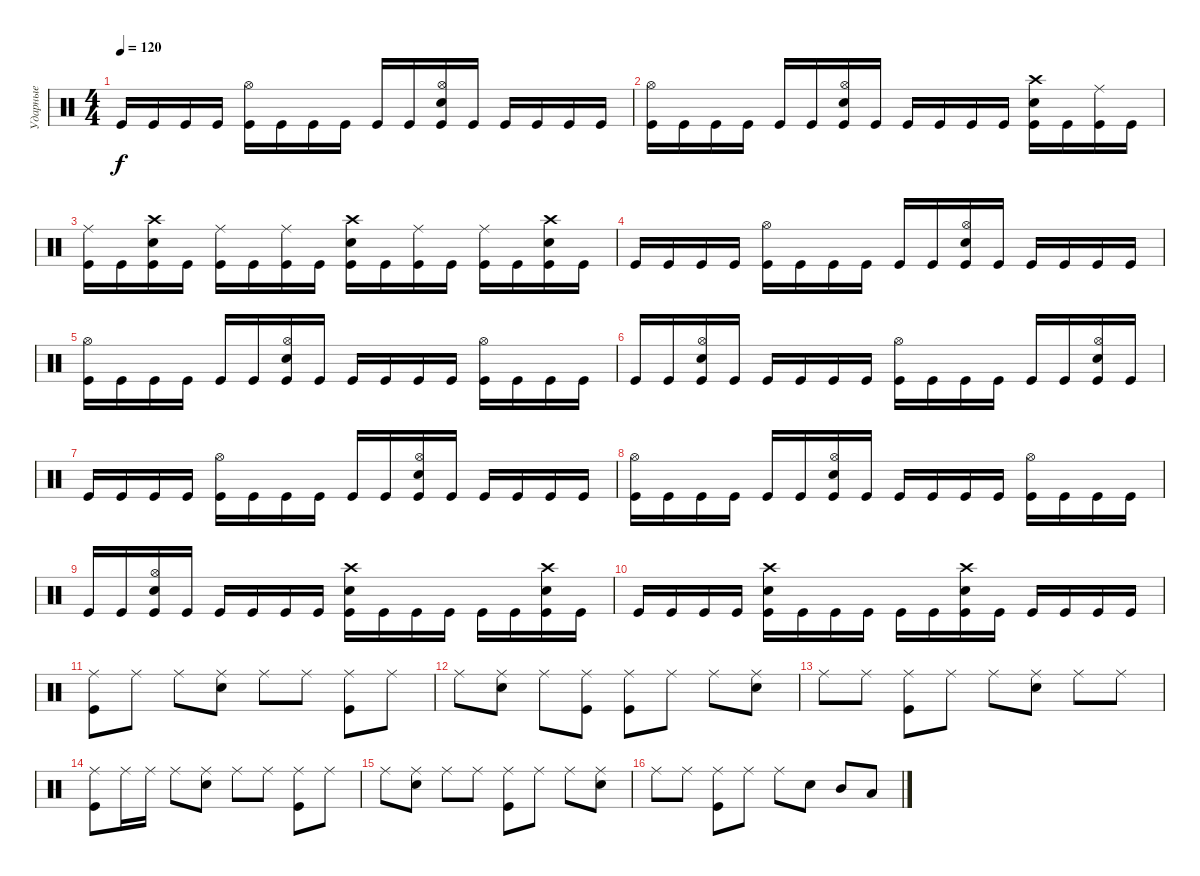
\track ("Ударные" "Ударные") {instrument percussion}
\staff {score}
\articulation defaults
\ts (4 4)
\tempo 120
\clef neutral
\ks c "Kick (hit)".16{dy f} "Kick (hit)".16 "Kick (hit)".16 "Kick (hit)".16
("Kick (hit)" "Hi-Hat (open)").16 "Kick (hit)".16 "Kick (hit)".16 "Kick (hit)".16 "Kick (hit)".16 "Kick (hit)".16 ("Electric Snare (hit)" "Kick (hit)" "Hi-Hat (open)").16 "Kick (hit)".16 "Kick (hit)".16 "Kick (hit)".16 "Kick (hit)".16 "Kick (hit)".16 |
("Kick (hit)" "Hi-Hat (open)").16 "Kick (hit)".16 "Kick (hit)".16 "Kick (hit)".16 "Kick (hit)".16 "Kick (hit)".16 ("Electric Snare (hit)" "Kick (hit)" "Hi-Hat (open)").16 "Kick (hit)".16 "Kick (hit)".16 "Kick (hit)".16 "Kick (hit)".16 "Kick (hit)".16 ("Electric Snare (hit)" "Kick (hit)" "Crash high (hit)").16 "Kick (hit)".16 ("Kick (hit)" "Ride (middle)").16 "Kick (hit)".16 |
("Kick (hit)" "Ride (middle)").16 "Kick (hit)".16 ("Electric Snare (hit)" "Kick (hit)" "Crash high (hit)").16 "Kick (hit)".16 ("Kick (hit)" "Ride (middle)").16 "Kick (hit)".16 ("Kick (hit)" "Ride (middle)").16 "Kick (hit)".16 ("Electric Snare (hit)" "Kick (hit)" "Crash high (hit)").16 "Kick (hit)".16 ("Kick (hit)" "Ride (middle)").16 "Kick (hit)".16 ("Kick (hit)" "Ride (middle)").16 "Kick (hit)".16 ("Electric Snare (hit)" "Kick (hit)" "Crash high (hit)").16 "Kick (hit)".16 |
"Kick (hit)".16 "Kick (hit)".16 "Kick (hit)".16 "Kick (hit)".16 ("Kick (hit)" "Hi-Hat (open)").16 "Kick (hit)".16 "Kick (hit)".16 "Kick (hit)".16 "Kick (hit)".16 "Kick (hit)".16 ("Electric Snare (hit)" "Kick (hit)" "Hi-Hat (open)").16 "Kick (hit)".16 "Kick (hit)".16 "Kick (hit)".16 "Kick (hit)".16 "Kick (hit)".16 |
("Kick (hit)" "Hi-Hat (open)").16 "Kick (hit)".16 "Kick (hit)".16 "Kick (hit)".16 "Kick (hit)".16 "Kick (hit)".16 ("Electric Snare (hit)" "Kick (hit)" "Hi-Hat (open)").16 "Kick (hit)".16 "Kick (hit)".16 "Kick (hit)".16 "Kick (hit)".16 "Kick (hit)".16 ("Kick (hit)" "Hi-Hat (open)").16 "Kick (hit)".16 "Kick (hit)".16 "Kick (hit)".16 |
"Kick (hit)".16 "Kick (hit)".16 ("Electric Snare (hit)" "Kick (hit)" "Hi-Hat (open)").16 "Kick (hit)".16 "Kick (hit)".16 "Kick (hit)".16 "Kick (hit)".16 "Kick (hit)".16 ("Kick (hit)" "Hi-Hat (open)").16 "Kick (hit)".16 "Kick (hit)".16 "Kick (hit)".16 "Kick (hit)".16 "Kick (hit)".16 ("Electric Snare (hit)" "Kick (hit)" "Hi-Hat (open)").16 "Kick (hit)".16 |
"Kick (hit)".16 "Kick (hit)".16 "Kick (hit)".16 "Kick (hit)".16 ("Kick (hit)" "Hi-Hat (open)").16 "Kick (hit)".16 "Kick (hit)".16 "Kick (hit)".16 "Kick (hit)".16 "Kick (hit)".16 ("Electric Snare (hit)" "Kick (hit)" "Hi-Hat (open)").16 "Kick (hit)".16 "Kick (hit)".16 "Kick (hit)".16 "Kick (hit)".16 "Kick (hit)".16 |
("Kick (hit)" "Hi-Hat (open)").16 "Kick (hit)".16 "Kick (hit)".16 "Kick (hit)".16 "Kick (hit)".16 "Kick (hit)".16 ("Electric Snare (hit)" "Kick (hit)" "Hi-Hat (open)").16 "Kick (hit)".16 "Kick (hit)".16 "Kick (hit)".16 "Kick (hit)".16 "Kick (hit)".16 ("Kick (hit)" "Hi-Hat (open)").16 "Kick (hit)".16 "Kick (hit)".16 "Kick (hit)".16 |
"Kick (hit)".16 "Kick (hit)".16 ("Electric Snare (hit)" "Kick (hit)" "Hi-Hat (open)").16 "Kick (hit)".16 "Kick (hit)".16 "Kick (hit)".16 "Kick (hit)".16 "Kick (hit)".16 ("Electric Snare (hit)" "Kick (hit)" "Crash high (hit)").16 "Kick (hit)".16 "Kick (hit)".16 "Kick (hit)".16 "Kick (hit)".16 "Kick (hit)".16 ("Electric Snare (hit)" "Kick (hit)" "Crash high (hit)").16 "Kick (hit)".16 |
"Kick (hit)".16 "Kick (hit)".16 "Kick (hit)".16 "Kick (hit)".16 ("Electric Snare (hit)" "Kick (hit)" "Crash high (hit)").16 "Kick (hit)".16 "Kick (hit)".16 "Kick (hit)".16 "Kick (hit)".16 "Kick (hit)".16 ("Electric Snare (hit)" "Kick (hit)" "Crash high (hit)").16 "Kick (hit)".16 "Kick (hit)".16 "Kick (hit)".16 "Kick (hit)".16 "Kick (hit)".16 |
("Ride (middle)" "Kick (hit)").8 "Ride (middle)".8 "Ride (middle)".8 ("Ride (middle)" "Electric Snare (hit)").8 "Ride (middle)".8 "Ride (middle)".8 ("Ride (middle)" "Kick (hit)").8 "Ride (middle)".8 |
"Ride (middle)".8 ("Ride (middle)" "Electric Snare (hit)").8 "Ride (middle)".8 ("Ride (middle)" "Kick (hit)").8 ("Ride (middle)" "Kick (hit)").8 "Ride (middle)".8 "Ride (middle)".8 ("Ride (middle)" "Electric Snare (hit)").8 |
"Ride (middle)".8 "Ride (middle)".8 ("Ride (middle)" "Kick (hit)").8 "Ride (middle)".8 "Ride (middle)".8 ("Ride (middle)" "Electric Snare (hit)").8 "Ride (middle)".8 "Ride (middle)".8 |
("Ride (middle)" "Kick (hit)").8 "Ride (middle)".16 "Ride (middle)".16 "Ride (middle)".8 ("Ride (middle)" "Electric Snare (hit)").8 "Ride (middle)".8 "Ride (middle)".8 ("Ride (middle)" "Kick (hit)").8 "Ride (middle)".8 |
"Ride (middle)".8 ("Ride (middle)" "Electric Snare (hit)").8 "Ride (middle)".8 "Ride (middle)".8 ("Ride (middle)" "Kick (hit)").8 "Ride (middle)".8 "Ride (middle)".8 ("Ride (middle)" "Electric Snare (hit)").8 |
"Ride (middle)".8 "Ride (middle)".8 ("Ride (middle)" "Kick (hit)").8 "Ride (middle)".8 "Ride (middle)".8 "Electric Snare (hit)".8 "Mid Tom (hit)".8 "Low Tom (hit)".8
